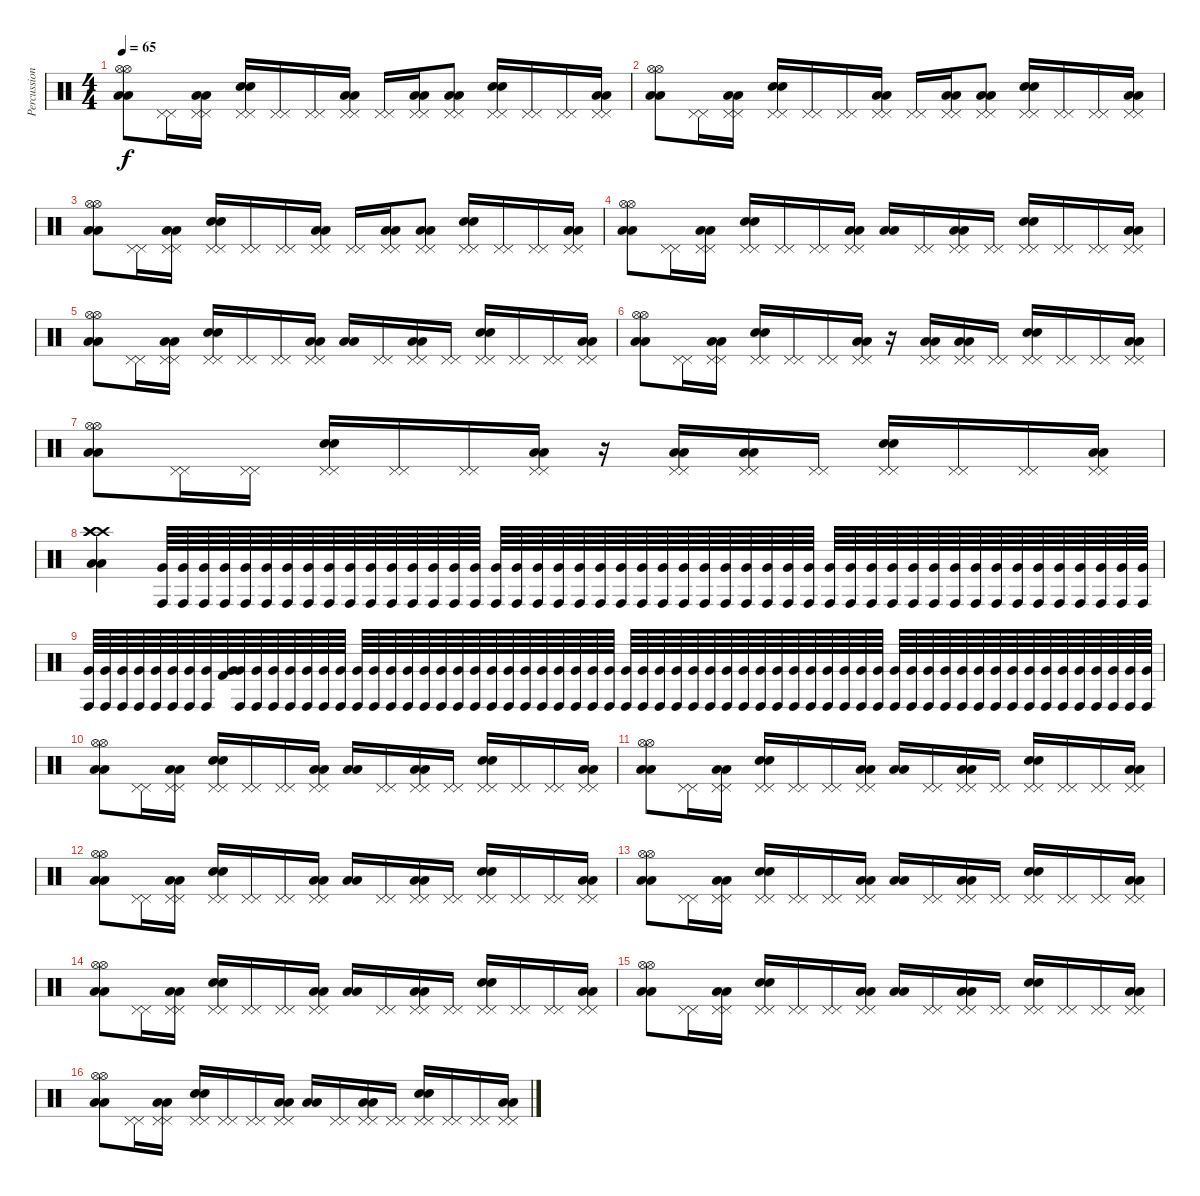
\track ("Percussions" "Percussion") {instrument percussion}
\staff {score}
\articulation defaults
\ts (4 4)
\tempo 65
\clef neutral
\ks c
("Hi-Hat (open)" "Hi-Hat (open)" "Low Floor Tom (hit)" "Low Floor Tom (hit)").8{dy f} ("Pedal Hi-Hat (hit)" "Pedal Hi-Hat (hit)").16 ("Pedal Hi-Hat (hit)" "Pedal Hi-Hat (hit)" "Low Floor Tom (hit)" "Low Floor Tom (hit)").16 ("Pedal Hi-Hat (hit)" "Pedal Hi-Hat (hit)" "Snare (hit) 2" "Snare (hit) 2").16 ("Pedal Hi-Hat (hit)" "Pedal Hi-Hat (hit)").16 ("Pedal Hi-Hat (hit)" "Pedal Hi-Hat (hit)").16 ("Pedal Hi-Hat (hit)" "Pedal Hi-Hat (hit)" "Low Floor Tom (hit)" "Low Floor Tom (hit)").16 ("Pedal Hi-Hat (hit)" "Pedal Hi-Hat (hit)").16 ("Pedal Hi-Hat (hit)" "Pedal Hi-Hat (hit)" "Low Floor Tom (hit)" "Low Floor Tom (hit)").16 ("Pedal Hi-Hat (hit)" "Pedal Hi-Hat (hit)" "Low Floor Tom (hit)" "Low Floor Tom (hit)").8 ("Pedal Hi-Hat (hit)" "Pedal Hi-Hat (hit)" "Snare (hit) 2" "Snare (hit) 2").16 ("Pedal Hi-Hat (hit)" "Pedal Hi-Hat (hit)").16 ("Pedal Hi-Hat (hit)" "Pedal Hi-Hat (hit)").16 ("Pedal Hi-Hat (hit)" "Pedal Hi-Hat (hit)" "Low Tom (hit)" "Low Tom (hit)").16 |
("Hi-Hat (open)" "Hi-Hat (open)" "Low Floor Tom (hit)" "Low Floor Tom (hit)").8 ("Pedal Hi-Hat (hit)" "Pedal Hi-Hat (hit)").16 ("Pedal Hi-Hat (hit)" "Pedal Hi-Hat (hit)" "Low Floor Tom (hit)" "Low Floor Tom (hit)").16 ("Pedal Hi-Hat (hit)" "Pedal Hi-Hat (hit)" "Snare (hit) 2" "Snare (hit) 2").16 ("Pedal Hi-Hat (hit)" "Pedal Hi-Hat (hit)").16 ("Pedal Hi-Hat (hit)" "Pedal Hi-Hat (hit)").16 ("Pedal Hi-Hat (hit)" "Pedal Hi-Hat (hit)" "Low Floor Tom (hit)" "Low Floor Tom (hit)").16 ("Pedal Hi-Hat (hit)" "Pedal Hi-Hat (hit)").16 ("Pedal Hi-Hat (hit)" "Pedal Hi-Hat (hit)" "Low Floor Tom (hit)" "Low Floor Tom (hit)").16 ("Pedal Hi-Hat (hit)" "Pedal Hi-Hat (hit)" "Low Floor Tom (hit)" "Low Floor Tom (hit)").8 ("Pedal Hi-Hat (hit)" "Pedal Hi-Hat (hit)" "Snare (hit) 2" "Snare (hit) 2").16 ("Pedal Hi-Hat (hit)" "Pedal Hi-Hat (hit)").16 ("Pedal Hi-Hat (hit)" "Pedal Hi-Hat (hit)").16 ("Pedal Hi-Hat (hit)" "Pedal Hi-Hat (hit)" "Low Tom (hit)" "Low Tom (hit)").16 |
("Hi-Hat (open)" "Hi-Hat (open)" "Low Floor Tom (hit)" "Low Floor Tom (hit)").8 ("Pedal Hi-Hat (hit)" "Pedal Hi-Hat (hit)").16 ("Pedal Hi-Hat (hit)" "Pedal Hi-Hat (hit)" "Low Floor Tom (hit)" "Low Floor Tom (hit)").16 ("Pedal Hi-Hat (hit)" "Pedal Hi-Hat (hit)" "Snare (hit) 2" "Snare (hit) 2").16 ("Pedal Hi-Hat (hit)" "Pedal Hi-Hat (hit)").16 ("Pedal Hi-Hat (hit)" "Pedal Hi-Hat (hit)").16 ("Pedal Hi-Hat (hit)" "Pedal Hi-Hat (hit)" "Low Floor Tom (hit)" "Low Floor Tom (hit)").16 ("Pedal Hi-Hat (hit)" "Pedal Hi-Hat (hit)").16 ("Pedal Hi-Hat (hit)" "Pedal Hi-Hat (hit)" "Low Floor Tom (hit)" "Low Floor Tom (hit)").16 ("Pedal Hi-Hat (hit)" "Pedal Hi-Hat (hit)" "Low Floor Tom (hit)" "Low Floor Tom (hit)").8 ("Pedal Hi-Hat (hit)" "Pedal Hi-Hat (hit)" "Snare (hit) 2" "Snare (hit) 2").16 ("Pedal Hi-Hat (hit)" "Pedal Hi-Hat (hit)").16 ("Pedal Hi-Hat (hit)" "Pedal Hi-Hat (hit)").16 ("Pedal Hi-Hat (hit)" "Pedal Hi-Hat (hit)" "Low Tom (hit)" "Low Tom (hit)").16 |
("Hi-Hat (open)" "Hi-Hat (open)" "Low Floor Tom (hit)" "Low Floor Tom (hit)").8 ("Pedal Hi-Hat (hit)" "Pedal Hi-Hat (hit)").16 ("Pedal Hi-Hat (hit)" "Pedal Hi-Hat (hit)" "Low Floor Tom (hit)" "Low Floor Tom (hit)").16 ("Pedal Hi-Hat (hit)" "Pedal Hi-Hat (hit)" "Snare (hit) 2" "Snare (hit) 2").16 ("Pedal Hi-Hat (hit)" "Pedal Hi-Hat (hit)").16 ("Pedal Hi-Hat (hit)" "Pedal Hi-Hat (hit)").16 ("Pedal Hi-Hat (hit)" "Pedal Hi-Hat (hit)" "Low Floor Tom (hit)" "Low Floor Tom (hit)").16 ("Low Floor Tom (hit)" "Low Floor Tom (hit)").16 ("Pedal Hi-Hat (hit)" "Pedal Hi-Hat (hit)").16 ("Pedal Hi-Hat (hit)" "Pedal Hi-Hat (hit)" "Low Floor Tom (hit)" "Low Floor Tom (hit)").16 ("Pedal Hi-Hat (hit)" "Pedal Hi-Hat (hit)").16 ("Pedal Hi-Hat (hit)" "Pedal Hi-Hat (hit)" "Snare (hit) 2" "Snare (hit) 2").16 ("Pedal Hi-Hat (hit)" "Pedal Hi-Hat (hit)").16 ("Pedal Hi-Hat (hit)" "Pedal Hi-Hat (hit)").16 ("Pedal Hi-Hat (hit)" "Pedal Hi-Hat (hit)" "Low Tom (hit)" "Low Tom (hit)").16 |
("Hi-Hat (open)" "Hi-Hat (open)" "Low Floor Tom (hit)" "Low Floor Tom (hit)").8 ("Pedal Hi-Hat (hit)" "Pedal Hi-Hat (hit)").16 ("Pedal Hi-Hat (hit)" "Pedal Hi-Hat (hit)" "Low Floor Tom (hit)" "Low Floor Tom (hit)").16 ("Pedal Hi-Hat (hit)" "Pedal Hi-Hat (hit)" "Snare (hit) 2" "Snare (hit) 2").16 ("Pedal Hi-Hat (hit)" "Pedal Hi-Hat (hit)").16 ("Pedal Hi-Hat (hit)" "Pedal Hi-Hat (hit)").16 ("Pedal Hi-Hat (hit)" "Pedal Hi-Hat (hit)" "Low Floor Tom (hit)" "Low Floor Tom (hit)").16 ("Low Floor Tom (hit)" "Low Floor Tom (hit)").16 ("Pedal Hi-Hat (hit)" "Pedal Hi-Hat (hit)").16 ("Pedal Hi-Hat (hit)" "Pedal Hi-Hat (hit)" "Low Floor Tom (hit)" "Low Floor Tom (hit)").16 ("Pedal Hi-Hat (hit)" "Pedal Hi-Hat (hit)").16 ("Pedal Hi-Hat (hit)" "Pedal Hi-Hat (hit)" "Snare (hit) 2" "Snare (hit) 2").16 ("Pedal Hi-Hat (hit)" "Pedal Hi-Hat (hit)").16 ("Pedal Hi-Hat (hit)" "Pedal Hi-Hat (hit)").16 ("Pedal Hi-Hat (hit)" "Pedal Hi-Hat (hit)" "Low Floor Tom (hit)" "Low Floor Tom (hit)").16 |
("Hi-Hat (open)" "Hi-Hat (open)" "Low Floor Tom (hit)" "Low Floor Tom (hit)").8 ("Pedal Hi-Hat (hit)" "Pedal Hi-Hat (hit)").16 ("Pedal Hi-Hat (hit)" "Pedal Hi-Hat (hit)" "Low Floor Tom (hit)" "Low Floor Tom (hit)").16 ("Pedal Hi-Hat (hit)" "Pedal Hi-Hat (hit)" "Snare (hit) 2" "Snare (hit) 2").16 ("Pedal Hi-Hat (hit)" "Pedal Hi-Hat (hit)").16 ("Pedal Hi-Hat (hit)" "Pedal Hi-Hat (hit)").16 ("Pedal Hi-Hat (hit)" "Pedal Hi-Hat (hit)" "Low Floor Tom (hit)" "Low Floor Tom (hit)").16 r.16 ("Pedal Hi-Hat (hit)" "Pedal Hi-Hat (hit)" "Low Floor Tom (hit)" "Low Floor Tom (hit)").16 ("Pedal Hi-Hat (hit)" "Pedal Hi-Hat (hit)" "Low Floor Tom (hit)" "Low Floor Tom (hit)").16 ("Pedal Hi-Hat (hit)" "Pedal Hi-Hat (hit)").16 ("Pedal Hi-Hat (hit)" "Pedal Hi-Hat (hit)" "Snare (hit) 2" "Snare (hit) 2").16 ("Pedal Hi-Hat (hit)" "Pedal Hi-Hat (hit)").16 ("Pedal Hi-Hat (hit)" "Pedal Hi-Hat (hit)").16 ("Pedal Hi-Hat (hit)" "Pedal Hi-Hat (hit)" "Low Tom (hit)" "Low Tom (hit)").16 |
("Hi-Hat (open)" "Hi-Hat (open)" "Low Floor Tom (hit)" "Low Floor Tom (hit)").8 ("Pedal Hi-Hat (hit)" "Pedal Hi-Hat (hit)").16 ("Pedal Hi-Hat (hit)" "Pedal Hi-Hat (hit)").16 ("Pedal Hi-Hat (hit)" "Pedal Hi-Hat (hit)" "Snare (hit) 2" "Snare (hit) 2").16 ("Pedal Hi-Hat (hit)" "Pedal Hi-Hat (hit)").16 ("Pedal Hi-Hat (hit)" "Pedal Hi-Hat (hit)").16 ("Pedal Hi-Hat (hit)" "Pedal Hi-Hat (hit)" "Low Floor Tom (hit)" "Low Floor Tom (hit)").16 r.16 ("Pedal Hi-Hat (hit)" "Pedal Hi-Hat (hit)" "Low Floor Tom (hit)" "Low Floor Tom (hit)").16 ("Pedal Hi-Hat (hit)" "Pedal Hi-Hat (hit)" "Low Floor Tom (hit)" "Low Floor Tom (hit)").16 ("Pedal Hi-Hat (hit)" "Pedal Hi-Hat (hit)").16 ("Pedal Hi-Hat (hit)" "Pedal Hi-Hat (hit)" "Snare (hit) 2" "Snare (hit) 2").16 ("Pedal Hi-Hat (hit)" "Pedal Hi-Hat (hit)").16 ("Pedal Hi-Hat (hit)" "Pedal Hi-Hat (hit)").16 ("Pedal Hi-Hat (hit)" "Pedal Hi-Hat (hit)" "Low Floor Tom (hit)" "Low Floor Tom (hit)").16 |
("Crash high (hit)" "Crash high (hit)" "Crash high (hit)" "Low Floor Tom (hit)" "Low Floor Tom (hit)").4 ("Conga high (hit)" "Very Low Tom (hit)").64{volume 4} ("Conga high (hit)" "Very Low Tom (hit)").64{volume 13} ("Conga high (hit)" "Very Low Tom (hit)").64 ("Conga high (hit)" "Very Low Tom (hit)").64 ("Conga high (hit)" "Very Low Tom (hit)").64 ("Conga high (hit)" "Very Low Tom (hit)").64 ("Conga high (hit)" "Very Low Tom (hit)").64 ("Conga high (hit)" "Very Low Tom (hit)").64 ("Conga high (hit)" "Very Low Tom (hit)").64 ("Conga high (hit)" "Very Low Tom (hit)").64 ("Conga high (hit)" "Very Low Tom (hit)").64 ("Conga high (hit)" "Very Low Tom (hit)").64 ("Conga high (hit)" "Very Low Tom (hit)").64 ("Conga high (hit)" "Very Low Tom (hit)").64 ("Conga high (hit)" "Very Low Tom (hit)").64 ("Conga high (hit)" "Very Low Tom (hit)").64 ("Conga high (hit)" "Very Low Tom (hit)").64 ("Conga high (hit)" "Very Low Tom (hit)").64 ("Conga high (hit)" "Very Low Tom (hit)").64 ("Conga high (hit)" "Very Low Tom (hit)").64 ("Conga high (hit)" "Very Low Tom (hit)").64 ("Conga high (hit)" "Very Low Tom (hit)").64 ("Conga high (hit)" "Very Low Tom (hit)").64 ("Conga high (hit)" "Very Low Tom (hit)").64 ("Conga high (hit)" "Very Low Tom (hit)").64 ("Conga high (hit)" "Very Low Tom (hit)").64 ("Conga high (hit)" "Very Low Tom (hit)").64 ("Conga high (hit)" "Very Low Tom (hit)").64 ("Conga high (hit)" "Very Low Tom (hit)").64 ("Conga high (hit)" "Very Low Tom (hit)").64 ("Conga high (hit)" "Very Low Tom (hit)").64 ("Conga high (hit)" "Very Low Tom (hit)").64 ("Conga high (hit)" "Very Low Tom (hit)").64 ("Conga high (hit)" "Very Low Tom (hit)").64 ("Conga high (hit)" "Very Low Tom (hit)").64 ("Conga high (hit)" "Very Low Tom (hit)").64 ("Conga high (hit)" "Very Low Tom (hit)").64 ("Conga high (hit)" "Very Low Tom (hit)").64 ("Conga high (hit)" "Very Low Tom (hit)").64 ("Conga high (hit)" "Very Low Tom (hit)").64 ("Conga high (hit)" "Very Low Tom (hit)").64 ("Conga high (hit)" "Very Low Tom (hit)").64 ("Conga high (hit)" "Very Low Tom (hit)").64 ("Conga high (hit)" "Very Low Tom (hit)").64 ("Conga high (hit)" "Very Low Tom (hit)").64 ("Conga high (hit)" "Very Low Tom (hit)").64 ("Conga high (hit)" "Very Low Tom (hit)").64 ("Conga high (hit)" "Very Low Tom (hit)").64 |
("Conga high (hit)" "Very Low Tom (hit)").64 ("Conga high (hit)" "Very Low Tom (hit)").64 ("Conga high (hit)" "Very Low Tom (hit)").64 ("Conga high (hit)" "Very Low Tom (hit)").64 ("Conga high (hit)" "Very Low Tom (hit)").64 ("Conga high (hit)" "Very Low Tom (hit)").64 ("Conga high (hit)" "Very Low Tom (hit)").64 ("Conga high (hit)" "Very Low Tom (hit)").64 ("Kick (hit) 2" "Very Low Tom (hit)").64 ("Conga high (hit)" "Very Low Tom (hit)").64 ("Conga high (hit)" "Very Low Tom (hit)").64 ("Conga high (hit)" "Very Low Tom (hit)").64 ("Conga high (hit)" "Very Low Tom (hit)").64 ("Conga high (hit)" "Very Low Tom (hit)").64 ("Conga high (hit)" "Very Low Tom (hit)").64 ("Conga high (hit)" "Very Low Tom (hit)").64 ("Conga high (hit)" "Very Low Tom (hit)").64 ("Conga high (hit)" "Very Low Tom (hit)").64 ("Conga high (hit)" "Very Low Tom (hit)").64 ("Conga high (hit)" "Very Low Tom (hit)").64 ("Conga high (hit)" "Very Low Tom (hit)").64 ("Conga high (hit)" "Very Low Tom (hit)").64 ("Conga high (hit)" "Very Low Tom (hit)").64 ("Conga high (hit)" "Very Low Tom (hit)").64 ("Conga high (hit)" "Very Low Tom (hit)").64 ("Conga high (hit)" "Very Low Tom (hit)").64 ("Conga high (hit)" "Very Low Tom (hit)").64 ("Conga high (hit)" "Very Low Tom (hit)").64 ("Conga high (hit)" "Very Low Tom (hit)").64 ("Conga high (hit)" "Very Low Tom (hit)").64 ("Conga high (hit)" "Very Low Tom (hit)").64 ("Conga high (hit)" "Very Low Tom (hit)").64 ("Conga high (hit)" "Very Low Tom (hit)").64 ("Conga high (hit)" "Very Low Tom (hit)").64 ("Conga high (hit)" "Very Low Tom (hit)").64 ("Conga high (hit)" "Very Low Tom (hit)").64 ("Conga high (hit)" "Very Low Tom (hit)").64 ("Conga high (hit)" "Very Low Tom (hit)").64 ("Conga high (hit)" "Very Low Tom (hit)").64 ("Conga high (hit)" "Very Low Tom (hit)").64 ("Conga high (hit)" "Very Low Tom (hit)").64 ("Conga high (hit)" "Very Low Tom (hit)").64 ("Conga high (hit)" "Very Low Tom (hit)").64 ("Conga high (hit)" "Very Low Tom (hit)").64 ("Conga high (hit)" "Very Low Tom (hit)").64 ("Conga high (hit)" "Very Low Tom (hit)").64 ("Conga high (hit)" "Very Low Tom (hit)").64 ("Conga high (hit)" "Very Low Tom (hit)").64 ("Conga high (hit)" "Very Low Tom (hit)").64 ("Conga high (hit)" "Very Low Tom (hit)").64 ("Conga high (hit)" "Very Low Tom (hit)").64 ("Conga high (hit)" "Very Low Tom (hit)").64 ("Conga high (hit)" "Very Low Tom (hit)").64 ("Conga high (hit)" "Very Low Tom (hit)").64 ("Conga high (hit)" "Very Low Tom (hit)").64 ("Conga high (hit)" "Very Low Tom (hit)").64 ("Conga high (hit)" "Very Low Tom (hit)").64 ("Conga high (hit)" "Very Low Tom (hit)").64 ("Conga high (hit)" "Very Low Tom (hit)").64 ("Conga high (hit)" "Very Low Tom (hit)").64 ("Conga high (hit)" "Very Low Tom (hit)").64 ("Conga high (hit)" "Very Low Tom (hit)").64 ("Conga high (hit)" "Very Low Tom (hit)").64 ("Conga high (hit)" "Very Low Tom (hit)").64 |
("Hi-Hat (open)" "Hi-Hat (open)" "Low Floor Tom (hit)" "Low Floor Tom (hit)").8 ("Pedal Hi-Hat (hit)" "Pedal Hi-Hat (hit)").16 ("Pedal Hi-Hat (hit)" "Pedal Hi-Hat (hit)" "Low Floor Tom (hit)" "Low Floor Tom (hit)").16 ("Pedal Hi-Hat (hit)" "Pedal Hi-Hat (hit)" "Snare (hit) 2" "Snare (hit) 2").16 ("Pedal Hi-Hat (hit)" "Pedal Hi-Hat (hit)").16 ("Pedal Hi-Hat (hit)" "Pedal Hi-Hat (hit)").16 ("Pedal Hi-Hat (hit)" "Pedal Hi-Hat (hit)" "Low Floor Tom (hit)" "Low Floor Tom (hit)").16 ("Low Floor Tom (hit)" "Low Floor Tom (hit)").16 ("Pedal Hi-Hat (hit)" "Pedal Hi-Hat (hit)").16 ("Pedal Hi-Hat (hit)" "Pedal Hi-Hat (hit)" "Low Floor Tom (hit)" "Low Floor Tom (hit)").16 ("Pedal Hi-Hat (hit)" "Pedal Hi-Hat (hit)").16 ("Pedal Hi-Hat (hit)" "Pedal Hi-Hat (hit)" "Snare (hit) 2" "Snare (hit) 2").16 ("Pedal Hi-Hat (hit)" "Pedal Hi-Hat (hit)").16 ("Pedal Hi-Hat (hit)" "Pedal Hi-Hat (hit)").16 ("Pedal Hi-Hat (hit)" "Pedal Hi-Hat (hit)" "Low Floor Tom (hit)" "Low Floor Tom (hit)").16 |
("Hi-Hat (open)" "Hi-Hat (open)" "Low Floor Tom (hit)" "Low Floor Tom (hit)").8 ("Pedal Hi-Hat (hit)" "Pedal Hi-Hat (hit)").16 ("Pedal Hi-Hat (hit)" "Pedal Hi-Hat (hit)" "Low Floor Tom (hit)" "Low Floor Tom (hit)").16 ("Pedal Hi-Hat (hit)" "Pedal Hi-Hat (hit)" "Snare (hit) 2" "Snare (hit) 2").16 ("Pedal Hi-Hat (hit)" "Pedal Hi-Hat (hit)").16 ("Pedal Hi-Hat (hit)" "Pedal Hi-Hat (hit)").16 ("Pedal Hi-Hat (hit)" "Pedal Hi-Hat (hit)" "Low Floor Tom (hit)" "Low Floor Tom (hit)").16 ("Low Floor Tom (hit)" "Low Floor Tom (hit)").16 ("Pedal Hi-Hat (hit)" "Pedal Hi-Hat (hit)").16 ("Pedal Hi-Hat (hit)" "Pedal Hi-Hat (hit)" "Low Floor Tom (hit)" "Low Floor Tom (hit)").16 ("Pedal Hi-Hat (hit)" "Pedal Hi-Hat (hit)").16 ("Pedal Hi-Hat (hit)" "Pedal Hi-Hat (hit)" "Snare (hit) 2" "Snare (hit) 2").16 ("Pedal Hi-Hat (hit)" "Pedal Hi-Hat (hit)").16 ("Pedal Hi-Hat (hit)" "Pedal Hi-Hat (hit)").16 ("Pedal Hi-Hat (hit)" "Pedal Hi-Hat (hit)" "Low Floor Tom (hit)" "Low Floor Tom (hit)").16 |
("Hi-Hat (open)" "Hi-Hat (open)" "Low Floor Tom (hit)" "Low Floor Tom (hit)").8 ("Pedal Hi-Hat (hit)" "Pedal Hi-Hat (hit)").16 ("Pedal Hi-Hat (hit)" "Pedal Hi-Hat (hit)" "Low Floor Tom (hit)" "Low Floor Tom (hit)").16 ("Pedal Hi-Hat (hit)" "Pedal Hi-Hat (hit)" "Snare (hit) 2" "Snare (hit) 2").16 ("Pedal Hi-Hat (hit)" "Pedal Hi-Hat (hit)").16 ("Pedal Hi-Hat (hit)" "Pedal Hi-Hat (hit)").16 ("Pedal Hi-Hat (hit)" "Pedal Hi-Hat (hit)" "Low Floor Tom (hit)" "Low Floor Tom (hit)").16 ("Low Floor Tom (hit)" "Low Floor Tom (hit)").16 ("Pedal Hi-Hat (hit)" "Pedal Hi-Hat (hit)").16 ("Pedal Hi-Hat (hit)" "Pedal Hi-Hat (hit)" "Low Floor Tom (hit)" "Low Floor Tom (hit)").16 ("Pedal Hi-Hat (hit)" "Pedal Hi-Hat (hit)").16 ("Pedal Hi-Hat (hit)" "Pedal Hi-Hat (hit)" "Snare (hit) 2" "Snare (hit) 2").16 ("Pedal Hi-Hat (hit)" "Pedal Hi-Hat (hit)").16 ("Pedal Hi-Hat (hit)" "Pedal Hi-Hat (hit)").16 ("Pedal Hi-Hat (hit)" "Pedal Hi-Hat (hit)" "Low Floor Tom (hit)" "Low Floor Tom (hit)").16 |
("Hi-Hat (open)" "Hi-Hat (open)" "Low Floor Tom (hit)" "Low Floor Tom (hit)").8 ("Pedal Hi-Hat (hit)" "Pedal Hi-Hat (hit)").16 ("Pedal Hi-Hat (hit)" "Pedal Hi-Hat (hit)" "Low Floor Tom (hit)" "Low Floor Tom (hit)").16 ("Pedal Hi-Hat (hit)" "Pedal Hi-Hat (hit)" "Snare (hit) 2" "Snare (hit) 2").16 ("Pedal Hi-Hat (hit)" "Pedal Hi-Hat (hit)").16 ("Pedal Hi-Hat (hit)" "Pedal Hi-Hat (hit)").16 ("Pedal Hi-Hat (hit)" "Pedal Hi-Hat (hit)" "Low Floor Tom (hit)" "Low Floor Tom (hit)").16 ("Low Floor Tom (hit)" "Low Floor Tom (hit)").16 ("Pedal Hi-Hat (hit)" "Pedal Hi-Hat (hit)").16 ("Pedal Hi-Hat (hit)" "Pedal Hi-Hat (hit)" "Low Floor Tom (hit)" "Low Floor Tom (hit)").16 ("Pedal Hi-Hat (hit)" "Pedal Hi-Hat (hit)").16 ("Pedal Hi-Hat (hit)" "Pedal Hi-Hat (hit)" "Snare (hit) 2" "Snare (hit) 2").16 ("Pedal Hi-Hat (hit)" "Pedal Hi-Hat (hit)").16 ("Pedal Hi-Hat (hit)" "Pedal Hi-Hat (hit)").16 ("Pedal Hi-Hat (hit)" "Pedal Hi-Hat (hit)" "Low Floor Tom (hit)" "Low Floor Tom (hit)").16 |
("Hi-Hat (open)" "Hi-Hat (open)" "Low Floor Tom (hit)" "Low Floor Tom (hit)").8 ("Pedal Hi-Hat (hit)" "Pedal Hi-Hat (hit)").16 ("Pedal Hi-Hat (hit)" "Pedal Hi-Hat (hit)" "Low Floor Tom (hit)" "Low Floor Tom (hit)").16 ("Pedal Hi-Hat (hit)" "Pedal Hi-Hat (hit)" "Snare (hit) 2" "Snare (hit) 2").16 ("Pedal Hi-Hat (hit)" "Pedal Hi-Hat (hit)").16 ("Pedal Hi-Hat (hit)" "Pedal Hi-Hat (hit)").16 ("Pedal Hi-Hat (hit)" "Pedal Hi-Hat (hit)" "Low Floor Tom (hit)" "Low Floor Tom (hit)").16 ("Low Floor Tom (hit)" "Low Floor Tom (hit)").16 ("Pedal Hi-Hat (hit)" "Pedal Hi-Hat (hit)").16 ("Pedal Hi-Hat (hit)" "Pedal Hi-Hat (hit)" "Low Floor Tom (hit)" "Low Floor Tom (hit)").16 ("Pedal Hi-Hat (hit)" "Pedal Hi-Hat (hit)").16 ("Pedal Hi-Hat (hit)" "Pedal Hi-Hat (hit)" "Snare (hit) 2" "Snare (hit) 2").16 ("Pedal Hi-Hat (hit)" "Pedal Hi-Hat (hit)").16 ("Pedal Hi-Hat (hit)" "Pedal Hi-Hat (hit)").16 ("Pedal Hi-Hat (hit)" "Pedal Hi-Hat (hit)" "Low Floor Tom (hit)" "Low Floor Tom (hit)").16 |
("Hi-Hat (open)" "Hi-Hat (open)" "Low Floor Tom (hit)" "Low Floor Tom (hit)").8 ("Pedal Hi-Hat (hit)" "Pedal Hi-Hat (hit)").16 ("Pedal Hi-Hat (hit)" "Pedal Hi-Hat (hit)" "Low Floor Tom (hit)" "Low Floor Tom (hit)").16 ("Pedal Hi-Hat (hit)" "Pedal Hi-Hat (hit)" "Snare (hit) 2" "Snare (hit) 2").16 ("Pedal Hi-Hat (hit)" "Pedal Hi-Hat (hit)").16 ("Pedal Hi-Hat (hit)" "Pedal Hi-Hat (hit)").16 ("Pedal Hi-Hat (hit)" "Pedal Hi-Hat (hit)" "Low Floor Tom (hit)" "Low Floor Tom (hit)").16 ("Low Floor Tom (hit)" "Low Floor Tom (hit)").16 ("Pedal Hi-Hat (hit)" "Pedal Hi-Hat (hit)").16 ("Pedal Hi-Hat (hit)" "Pedal Hi-Hat (hit)" "Low Floor Tom (hit)" "Low Floor Tom (hit)").16 ("Pedal Hi-Hat (hit)" "Pedal Hi-Hat (hit)").16 ("Pedal Hi-Hat (hit)" "Pedal Hi-Hat (hit)" "Snare (hit) 2" "Snare (hit) 2").16 ("Pedal Hi-Hat (hit)" "Pedal Hi-Hat (hit)").16 ("Pedal Hi-Hat (hit)" "Pedal Hi-Hat (hit)").16 ("Pedal Hi-Hat (hit)" "Pedal Hi-Hat (hit)" "Low Floor Tom (hit)" "Low Floor Tom (hit)").16 |
("Hi-Hat (open)" "Hi-Hat (open)" "Low Floor Tom (hit)" "Low Floor Tom (hit)").8 ("Pedal Hi-Hat (hit)" "Pedal Hi-Hat (hit)").16 ("Pedal Hi-Hat (hit)" "Pedal Hi-Hat (hit)" "Low Floor Tom (hit)" "Low Floor Tom (hit)").16 ("Pedal Hi-Hat (hit)" "Pedal Hi-Hat (hit)" "Snare (hit) 2" "Snare (hit) 2").16 ("Pedal Hi-Hat (hit)" "Pedal Hi-Hat (hit)").16 ("Pedal Hi-Hat (hit)" "Pedal Hi-Hat (hit)").16 ("Pedal Hi-Hat (hit)" "Pedal Hi-Hat (hit)" "Low Floor Tom (hit)" "Low Floor Tom (hit)").16 ("Low Floor Tom (hit)" "Low Floor Tom (hit)").16 ("Pedal Hi-Hat (hit)" "Pedal Hi-Hat (hit)").16 ("Pedal Hi-Hat (hit)" "Pedal Hi-Hat (hit)" "Low Floor Tom (hit)" "Low Floor Tom (hit)").16 ("Pedal Hi-Hat (hit)" "Pedal Hi-Hat (hit)").16 ("Pedal Hi-Hat (hit)" "Pedal Hi-Hat (hit)" "Snare (hit) 2" "Snare (hit) 2").16 ("Pedal Hi-Hat (hit)" "Pedal Hi-Hat (hit)").16 ("Pedal Hi-Hat (hit)" "Pedal Hi-Hat (hit)").16 ("Pedal Hi-Hat (hit)" "Pedal Hi-Hat (hit)" "Low Floor Tom (hit)" "Low Floor Tom (hit)").16
